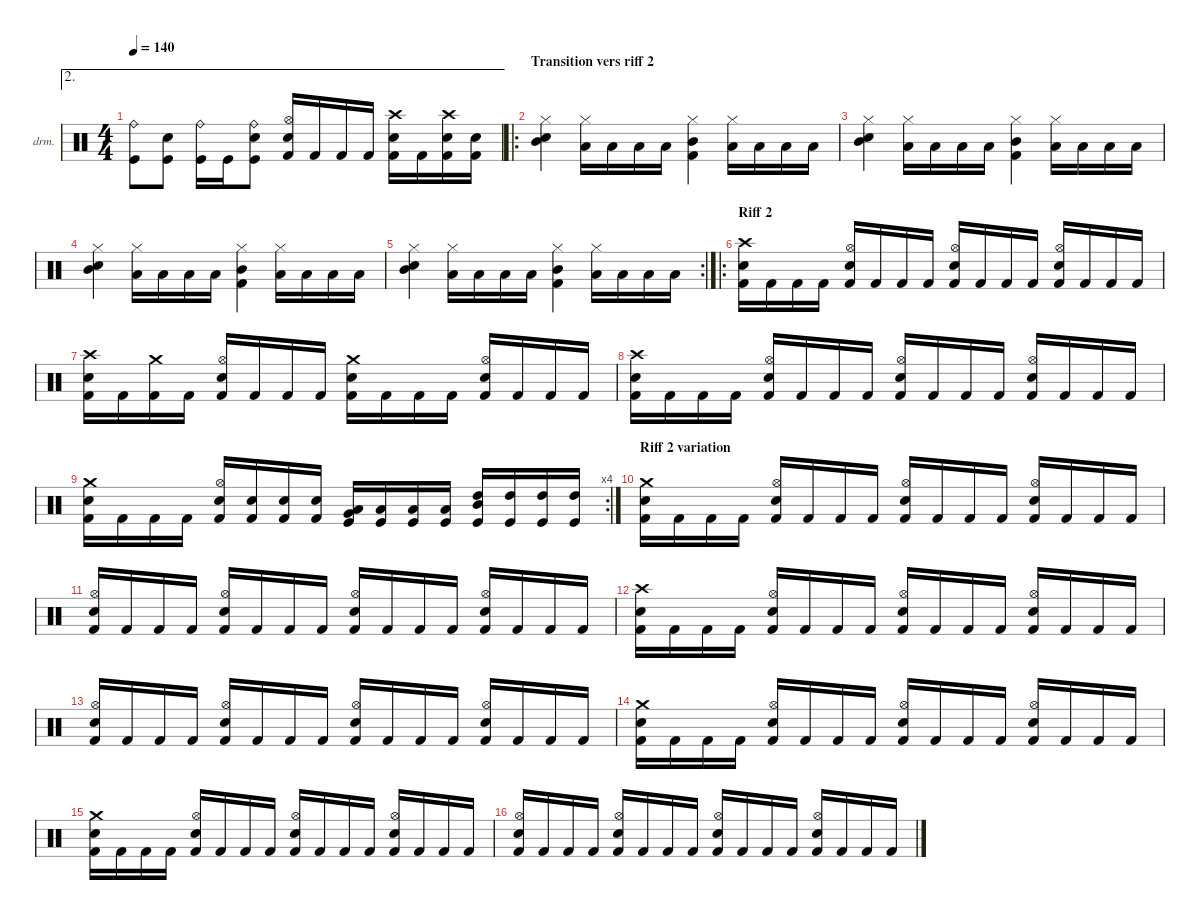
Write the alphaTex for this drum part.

\defaultSystemsLayout 4
\hideDynamics
\bracketExtendMode nobrackets
\firstSystemTrackNameOrientation horizontal
\otherSystemsTrackNameOrientation horizontal
\track ("Drumkit" "drm.") {instrument percussion}
\staff {score}
\articulation defaults
\ae 2
\ts (4 4)
\tempo 140
\clef neutral
\ks c
("Kick (hit)" "Ride (bell)").8{dy mf} ("Snare (hit) 2" "Kick (hit)").8 ("Kick (hit)" "Ride (bell)").16 "Kick (hit)".16 ("Snare (hit) 2" "Kick (hit)" "Ride (bell)").8 ("Hi-Hat (open)" "Snare (hit) 2" "Kick (hit) 2").16 "Kick (hit) 2".16 "Kick (hit) 2".16 "Kick (hit) 2".16 ("Crash high (hit)" "Snare (hit) 2" "Kick (hit) 2").16 "Kick (hit) 2".16 ("Crash high (hit)" "Snare (hit) 2" "Kick (hit) 2").16 ("Snare (hit) 2" "Kick (hit) 2").16 |
\ro
\section ("" "Transition vers riff 2")
("Snare (hit) 2" "Mid Tom (hit)" "Hi-Hat (closed)").4{dy fff} ("Low Tom (hit)" "Hi-Hat (closed)").16 "Low Tom (hit)".16 "Low Tom (hit)".16 "Low Tom (hit)".16 ("Mid Tom (hit)" "Kick (hit) 2" "Hi-Hat (closed)").4 ("Low Tom (hit)" "Hi-Hat (closed)").16 "Low Tom (hit)".16 "Low Tom (hit)".16 "Low Tom (hit)".16 |
("Snare (hit) 2" "Mid Tom (hit)" "Hi-Hat (closed)").4 ("Low Tom (hit)" "Hi-Hat (closed)").16 "Low Tom (hit)".16 "Low Tom (hit)".16 "Low Tom (hit)".16 ("Mid Tom (hit)" "Kick (hit) 2" "Hi-Hat (closed)").4 ("Low Tom (hit)" "Hi-Hat (closed)").16 "Low Tom (hit)".16 "Low Tom (hit)".16 "Low Tom (hit)".16 |
("Snare (hit) 2" "Mid Tom (hit)" "Hi-Hat (closed)").4 ("Low Tom (hit)" "Hi-Hat (closed)").16 "Low Tom (hit)".16 "Low Tom (hit)".16 "Low Tom (hit)".16 ("Mid Tom (hit)" "Kick (hit) 2" "Hi-Hat (closed)").4 ("Low Tom (hit)" "Hi-Hat (closed)").16 "Low Tom (hit)".16 "Low Tom (hit)".16 "Low Tom (hit)".16 |
\rc 2
("Snare (hit) 2" "Mid Tom (hit)" "Hi-Hat (closed)").4 ("Low Tom (hit)" "Hi-Hat (closed)").16 "Low Tom (hit)".16 "Low Tom (hit)".16 "Low Tom (hit)".16 ("Mid Tom (hit)" "Kick (hit) 2" "Hi-Hat (closed)").4 ("Low Tom (hit)" "Hi-Hat (closed)").16 "Low Tom (hit)".16 "Low Tom (hit)".16 "Low Tom (hit)".16 |
\ro
\section ("" "Riff 2")
("Crash high (hit)" "Snare (hit) 2" "Kick (hit) 2").16{dy f} "Kick (hit) 2".16 "Kick (hit) 2".16 "Kick (hit) 2".16 ("Hi-Hat (open)" "Snare (hit) 2" "Kick (hit) 2").16 "Kick (hit) 2".16 "Kick (hit) 2".16 "Kick (hit) 2".16 ("Hi-Hat (open)" "Snare (hit) 2" "Kick (hit) 2").16 "Kick (hit) 2".16 "Kick (hit) 2".16 "Kick (hit) 2".16 ("Hi-Hat (open)" "Snare (hit) 2" "Kick (hit) 2").16 "Kick (hit) 2".16 "Kick (hit) 2".16 "Kick (hit) 2".16 |
("Crash high (hit)" "Snare (hit) 2" "Kick (hit) 2").16 "Kick (hit) 2".16 ("Kick (hit) 2" "Crash medium (hit)").16 "Kick (hit) 2".16 ("Hi-Hat (open)" "Snare (hit) 2" "Kick (hit) 2").16 "Kick (hit) 2".16 "Kick (hit) 2".16 "Kick (hit) 2".16 ("Snare (hit) 2" "Kick (hit) 2" "Crash medium (hit)").16 "Kick (hit) 2".16 "Kick (hit) 2".16 "Kick (hit) 2".16 ("Hi-Hat (open)" "Snare (hit) 2" "Kick (hit) 2").16 "Kick (hit) 2".16 "Kick (hit) 2".16 "Kick (hit) 2".16 |
("Crash high (hit)" "Snare (hit) 2" "Kick (hit) 2").16 "Kick (hit) 2".16 "Kick (hit) 2".16 "Kick (hit) 2".16 ("Hi-Hat (open)" "Snare (hit) 2" "Kick (hit) 2").16 "Kick (hit) 2".16 "Kick (hit) 2".16 "Kick (hit) 2".16 ("Hi-Hat (open)" "Snare (hit) 2" "Kick (hit) 2").16 "Kick (hit) 2".16 "Kick (hit) 2".16 "Kick (hit) 2".16 ("Hi-Hat (open)" "Snare (hit) 2" "Kick (hit) 2").16 "Kick (hit) 2".16 "Kick (hit) 2".16 "Kick (hit) 2".16 |
\rc 4
("Snare (hit) 2" "Kick (hit) 2" "Crash medium (hit)").16 "Kick (hit) 2".16 "Kick (hit) 2".16 "Kick (hit) 2".16 ("Hi-Hat (open)" "Snare (hit) 2" "Kick (hit) 2").16 ("Kick (hit) 2" "Snare (hit) 2").16 ("Kick (hit) 2" "Snare (hit) 2").16 ("Kick (hit) 2" "Snare (hit) 2").16 ("Kick (hit)" "Very Low Tom (hit)" "Low Tom (hit)").16 ("Kick (hit)" "Low Tom (hit)").16 ("Kick (hit)" "Low Tom (hit)").16 ("Kick (hit)" "Low Tom (hit)").16 ("High Tom (hit)" "Mid Tom (hit)" "Kick (hit)").16 ("Kick (hit)" "High Tom (hit)").16 ("High Tom (hit)" "Kick (hit)").16 ("High Tom (hit)" "Kick (hit)").16 |
\section ("" "Riff 2 variation")
("Crash medium (hit)" "Snare (hit) 2" "Kick (hit) 2").16{dy mf} "Kick (hit) 2".16 "Kick (hit) 2".16 "Kick (hit) 2".16 ("Hi-Hat (open)" "Snare (hit) 2" "Kick (hit) 2").16 "Kick (hit) 2".16 "Kick (hit) 2".16 "Kick (hit) 2".16 ("Hi-Hat (open)" "Snare (hit) 2" "Kick (hit) 2").16 "Kick (hit) 2".16 "Kick (hit) 2".16 "Kick (hit) 2".16 ("Hi-Hat (open)" "Snare (hit) 2" "Kick (hit) 2").16 "Kick (hit) 2".16 "Kick (hit) 2".16 "Kick (hit) 2".16 |
("Hi-Hat (open)" "Snare (hit) 2" "Kick (hit) 2").16 "Kick (hit) 2".16 "Kick (hit) 2".16 "Kick (hit) 2".16 ("Hi-Hat (open)" "Snare (hit) 2" "Kick (hit) 2").16 "Kick (hit) 2".16 "Kick (hit) 2".16 "Kick (hit) 2".16 ("Hi-Hat (open)" "Snare (hit) 2" "Kick (hit) 2").16 "Kick (hit) 2".16 "Kick (hit) 2".16 "Kick (hit) 2".16 ("Hi-Hat (open)" "Snare (hit) 2" "Kick (hit) 2").16 "Kick (hit) 2".16 "Kick (hit) 2".16 "Kick (hit) 2".16 |
("Crash high (hit)" "Snare (hit) 2" "Kick (hit) 2").16 "Kick (hit) 2".16 "Kick (hit) 2".16 "Kick (hit) 2".16 ("Hi-Hat (open)" "Snare (hit) 2" "Kick (hit) 2").16 "Kick (hit) 2".16 "Kick (hit) 2".16 "Kick (hit) 2".16 ("Hi-Hat (open)" "Snare (hit) 2" "Kick (hit) 2").16 "Kick (hit) 2".16 "Kick (hit) 2".16 "Kick (hit) 2".16 ("Hi-Hat (open)" "Snare (hit) 2" "Kick (hit) 2").16 "Kick (hit) 2".16 "Kick (hit) 2".16 "Kick (hit) 2".16 |
("Hi-Hat (open)" "Snare (hit) 2" "Kick (hit) 2").16 "Kick (hit) 2".16 "Kick (hit) 2".16 "Kick (hit) 2".16 ("Hi-Hat (open)" "Snare (hit) 2" "Kick (hit) 2").16 "Kick (hit) 2".16 "Kick (hit) 2".16 "Kick (hit) 2".16 ("Hi-Hat (open)" "Snare (hit) 2" "Kick (hit) 2").16 "Kick (hit) 2".16 "Kick (hit) 2".16 "Kick (hit) 2".16 ("Hi-Hat (open)" "Snare (hit) 2" "Kick (hit) 2").16 "Kick (hit) 2".16 "Kick (hit) 2".16 "Kick (hit) 2".16 |
("Crash medium (hit)" "Snare (hit) 2" "Kick (hit) 2").16 "Kick (hit) 2".16 "Kick (hit) 2".16 "Kick (hit) 2".16 ("Hi-Hat (open)" "Snare (hit) 2" "Kick (hit) 2").16 "Kick (hit) 2".16 "Kick (hit) 2".16 "Kick (hit) 2".16 ("Hi-Hat (open)" "Snare (hit) 2" "Kick (hit) 2").16 "Kick (hit) 2".16 "Kick (hit) 2".16 "Kick (hit) 2".16 ("Hi-Hat (open)" "Snare (hit) 2" "Kick (hit) 2").16 "Kick (hit) 2".16 "Kick (hit) 2".16 "Kick (hit) 2".16 |
("Crash medium (hit)" "Snare (hit) 2" "Kick (hit) 2").16 "Kick (hit) 2".16 "Kick (hit) 2".16 "Kick (hit) 2".16 ("Hi-Hat (open)" "Snare (hit) 2" "Kick (hit) 2").16 "Kick (hit) 2".16 "Kick (hit) 2".16 "Kick (hit) 2".16 ("Hi-Hat (open)" "Snare (hit) 2" "Kick (hit) 2").16 "Kick (hit) 2".16 "Kick (hit) 2".16 "Kick (hit) 2".16 ("Hi-Hat (open)" "Snare (hit) 2" "Kick (hit) 2").16 "Kick (hit) 2".16 "Kick (hit) 2".16 "Kick (hit) 2".16 |
("Hi-Hat (open)" "Snare (hit) 2" "Kick (hit) 2").16 "Kick (hit) 2".16 "Kick (hit) 2".16 "Kick (hit) 2".16 ("Hi-Hat (open)" "Snare (hit) 2" "Kick (hit) 2").16 "Kick (hit) 2".16 "Kick (hit) 2".16 "Kick (hit) 2".16 ("Hi-Hat (open)" "Snare (hit) 2" "Kick (hit) 2").16 "Kick (hit) 2".16 "Kick (hit) 2".16 "Kick (hit) 2".16 ("Hi-Hat (open)" "Snare (hit) 2" "Kick (hit) 2").16 "Kick (hit) 2".16 "Kick (hit) 2".16 "Kick (hit) 2".16
